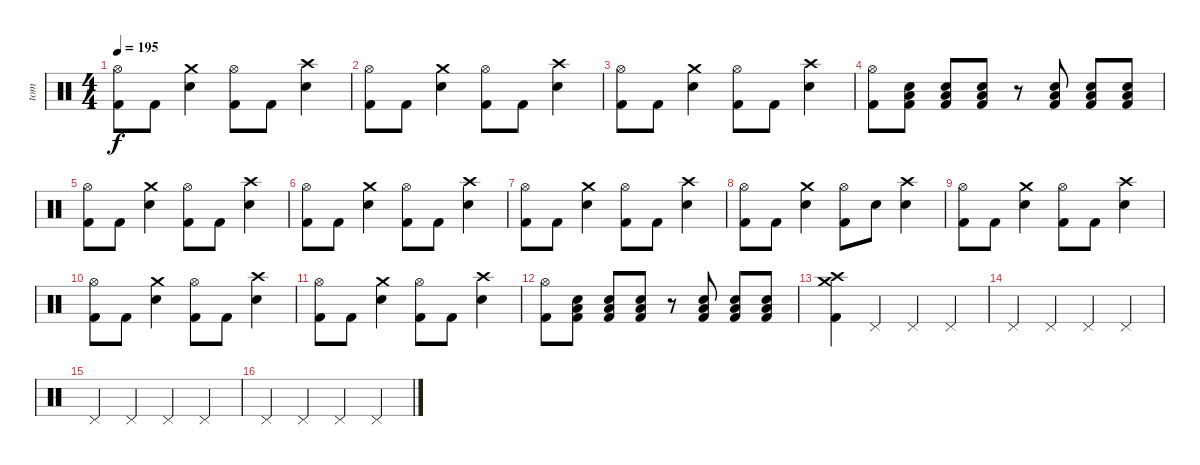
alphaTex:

\track ("tom" "tom") {instrument percussion}
\staff {score}
\articulation defaults
\ts (4 4)
\tempo 195
\clef neutral
\ks c
("Hi-Hat (open)" "Kick (hit) 2").8{dy f} "Kick (hit) 2".8 ("Crash medium (hit)" "Electric Snare (hit)").4 ("Hi-Hat (open)" "Kick (hit) 2").8 "Kick (hit) 2".8 ("Crash high (hit)" "Electric Snare (hit)").4 |
("Hi-Hat (open)" "Kick (hit) 2").8 "Kick (hit) 2".8 ("Crash medium (hit)" "Electric Snare (hit)").4 ("Hi-Hat (open)" "Kick (hit) 2").8 "Kick (hit) 2".8 ("Crash high (hit)" "Electric Snare (hit)").4 |
("Hi-Hat (open)" "Kick (hit) 2").8 "Kick (hit) 2".8 ("Crash medium (hit)" "Electric Snare (hit)").4 ("Hi-Hat (open)" "Kick (hit) 2").8 "Kick (hit) 2".8 ("Crash high (hit)" "Electric Snare (hit)").4 |
("Hi-Hat (open)" "Kick (hit) 2").8 ("Electric Snare (hit)" "Low Tom (hit)" "Kick (hit) 2").8 ("Electric Snare (hit)" "Low Tom (hit)" "Kick (hit) 2").8 ("Electric Snare (hit)" "Low Tom (hit)" "Kick (hit) 2").8 r.8 ("Electric Snare (hit)" "Low Tom (hit)" "Kick (hit) 2").8 ("Electric Snare (hit)" "Low Tom (hit)" "Kick (hit) 2").8 ("Electric Snare (hit)" "Low Tom (hit)" "Kick (hit) 2").8 |
("Hi-Hat (open)" "Kick (hit) 2").8 "Kick (hit) 2".8 ("Crash medium (hit)" "Electric Snare (hit)").4 ("Hi-Hat (open)" "Kick (hit) 2").8 "Kick (hit) 2".8 ("Crash high (hit)" "Electric Snare (hit)").4 |
("Hi-Hat (open)" "Kick (hit) 2").8 "Kick (hit) 2".8 ("Crash medium (hit)" "Electric Snare (hit)").4 ("Hi-Hat (open)" "Kick (hit) 2").8 "Kick (hit) 2".8 ("Crash high (hit)" "Electric Snare (hit)").4 |
("Hi-Hat (open)" "Kick (hit) 2").8 "Kick (hit) 2".8 ("Crash medium (hit)" "Electric Snare (hit)").4 ("Hi-Hat (open)" "Kick (hit) 2").8 "Kick (hit) 2".8 ("Crash high (hit)" "Electric Snare (hit)").4 |
("Hi-Hat (open)" "Kick (hit) 2").8 "Kick (hit) 2".8 ("Crash medium (hit)" "Electric Snare (hit)").4 ("Hi-Hat (open)" "Kick (hit) 2").8 "Electric Snare (hit)".8 ("Crash high (hit)" "Electric Snare (hit)").4 |
("Hi-Hat (open)" "Kick (hit) 2").8 "Kick (hit) 2".8 ("Crash medium (hit)" "Electric Snare (hit)").4 ("Hi-Hat (open)" "Kick (hit) 2").8 "Kick (hit) 2".8 ("Crash high (hit)" "Electric Snare (hit)").4 |
("Hi-Hat (open)" "Kick (hit) 2").8 "Kick (hit) 2".8 ("Crash medium (hit)" "Electric Snare (hit)").4 ("Hi-Hat (open)" "Kick (hit) 2").8 "Kick (hit) 2".8 ("Crash high (hit)" "Electric Snare (hit)").4 |
("Hi-Hat (open)" "Kick (hit) 2").8 "Kick (hit) 2".8 ("Crash medium (hit)" "Electric Snare (hit)").4 ("Hi-Hat (open)" "Kick (hit) 2").8 "Kick (hit) 2".8 ("Crash high (hit)" "Electric Snare (hit)").4 |
("Hi-Hat (open)" "Kick (hit) 2").8 ("Electric Snare (hit)" "Low Tom (hit)" "Kick (hit) 2").8 ("Electric Snare (hit)" "Low Tom (hit)" "Kick (hit) 2").8 ("Electric Snare (hit)" "Low Tom (hit)" "Kick (hit) 2").8 r.8 ("Electric Snare (hit)" "Low Tom (hit)" "Kick (hit) 2").8 ("Electric Snare (hit)" "Low Tom (hit)" "Kick (hit) 2").8 ("Electric Snare (hit)" "Low Tom (hit)" "Kick (hit) 2").8 |
("Crash high (hit)" "Kick (hit) 2" "Crash medium (hit)").4 "Pedal Hi-Hat (hit)".4 "Pedal Hi-Hat (hit)".4 "Pedal Hi-Hat (hit)".4 |
"Pedal Hi-Hat (hit)".4 "Pedal Hi-Hat (hit)".4 "Pedal Hi-Hat (hit)".4 "Pedal Hi-Hat (hit)".4 |
"Pedal Hi-Hat (hit)".4 "Pedal Hi-Hat (hit)".4 "Pedal Hi-Hat (hit)".4 "Pedal Hi-Hat (hit)".4 |
"Pedal Hi-Hat (hit)".4 "Pedal Hi-Hat (hit)".4 "Pedal Hi-Hat (hit)".4 "Pedal Hi-Hat (hit)".4
